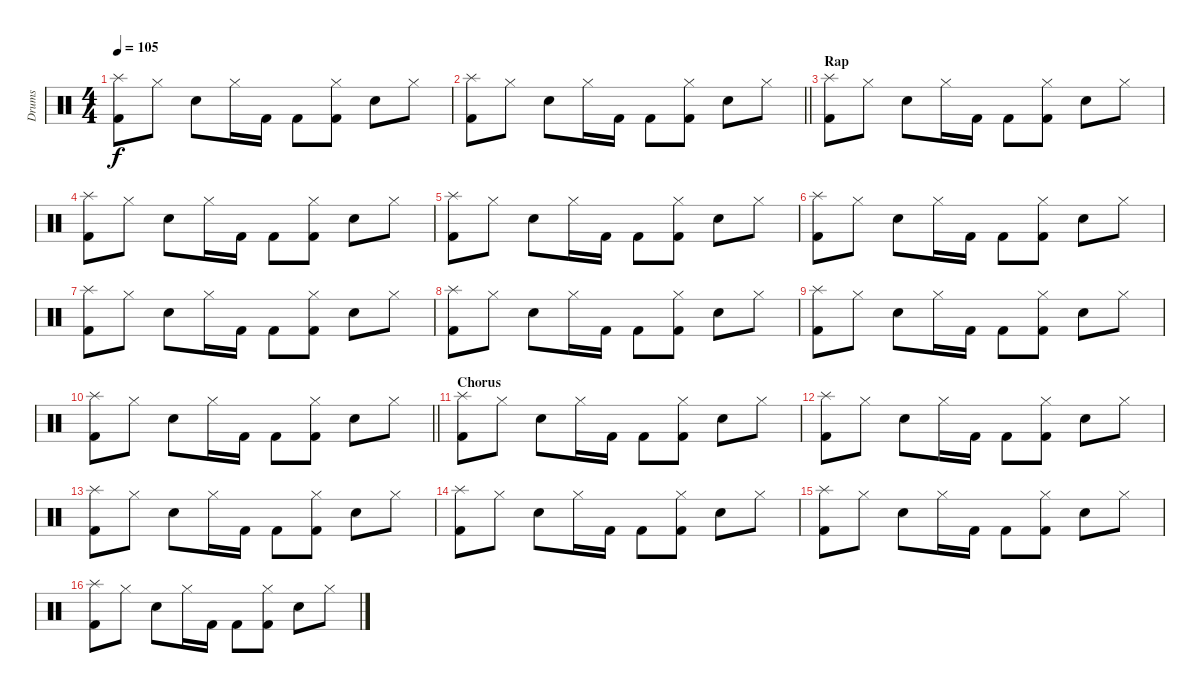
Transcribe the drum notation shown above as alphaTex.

\track ("Drums" "Drums") {instrument percussion}
\staff {score}
\articulation defaults
\ts (4 4)
\tempo 105
\clef neutral
\ks c
("Splash (hit)" "Kick (hit) 2").8{dy f} "Hi-Hat (closed)".8 "Electric Snare (hit)".8 "Hi-Hat (closed)".16 "Kick (hit) 2".16 "Kick (hit) 2".8 ("Hi-Hat (closed)" "Kick (hit) 2").8 "Electric Snare (hit)".8 "Hi-Hat (closed)".8 |
\barLineRight lightlight
("Splash (hit)" "Kick (hit) 2").8 "Hi-Hat (closed)".8 "Electric Snare (hit)".8 "Hi-Hat (closed)".16 "Kick (hit) 2".16 "Kick (hit) 2".8 ("Hi-Hat (closed)" "Kick (hit) 2").8 "Electric Snare (hit)".8 "Hi-Hat (closed)".8 |
\section ("" "Rap")
("Splash (hit)" "Kick (hit) 2").8 "Hi-Hat (closed)".8 "Electric Snare (hit)".8 "Hi-Hat (closed)".16 "Kick (hit) 2".16 "Kick (hit) 2".8 ("Hi-Hat (closed)" "Kick (hit) 2").8 "Electric Snare (hit)".8 "Hi-Hat (closed)".8 |
("Splash (hit)" "Kick (hit) 2").8 "Hi-Hat (closed)".8 "Electric Snare (hit)".8 "Hi-Hat (closed)".16 "Kick (hit) 2".16 "Kick (hit) 2".8 ("Hi-Hat (closed)" "Kick (hit) 2").8 "Electric Snare (hit)".8 "Hi-Hat (closed)".8 |
("Splash (hit)" "Kick (hit) 2").8 "Hi-Hat (closed)".8 "Electric Snare (hit)".8 "Hi-Hat (closed)".16 "Kick (hit) 2".16 "Kick (hit) 2".8 ("Hi-Hat (closed)" "Kick (hit) 2").8 "Electric Snare (hit)".8 "Hi-Hat (closed)".8 |
("Splash (hit)" "Kick (hit) 2").8 "Hi-Hat (closed)".8 "Electric Snare (hit)".8 "Hi-Hat (closed)".16 "Kick (hit) 2".16 "Kick (hit) 2".8 ("Hi-Hat (closed)" "Kick (hit) 2").8 "Electric Snare (hit)".8 "Hi-Hat (closed)".8 |
("Splash (hit)" "Kick (hit) 2").8 "Hi-Hat (closed)".8 "Electric Snare (hit)".8 "Hi-Hat (closed)".16 "Kick (hit) 2".16 "Kick (hit) 2".8 ("Hi-Hat (closed)" "Kick (hit) 2").8 "Electric Snare (hit)".8 "Hi-Hat (closed)".8 |
("Splash (hit)" "Kick (hit) 2").8 "Hi-Hat (closed)".8 "Electric Snare (hit)".8 "Hi-Hat (closed)".16 "Kick (hit) 2".16 "Kick (hit) 2".8 ("Hi-Hat (closed)" "Kick (hit) 2").8 "Electric Snare (hit)".8 "Hi-Hat (closed)".8 |
("Splash (hit)" "Kick (hit) 2").8 "Hi-Hat (closed)".8 "Electric Snare (hit)".8 "Hi-Hat (closed)".16 "Kick (hit) 2".16 "Kick (hit) 2".8 ("Hi-Hat (closed)" "Kick (hit) 2").8 "Electric Snare (hit)".8 "Hi-Hat (closed)".8 |
\barLineRight lightlight
("Splash (hit)" "Kick (hit) 2").8 "Hi-Hat (closed)".8 "Electric Snare (hit)".8 "Hi-Hat (closed)".16 "Kick (hit) 2".16 "Kick (hit) 2".8 ("Hi-Hat (closed)" "Kick (hit) 2").8 "Electric Snare (hit)".8 "Hi-Hat (closed)".8 |
\section ("" "Chorus")
("Splash (hit)" "Kick (hit) 2").8 "Hi-Hat (closed)".8 "Electric Snare (hit)".8 "Hi-Hat (closed)".16 "Kick (hit) 2".16 "Kick (hit) 2".8 ("Hi-Hat (closed)" "Kick (hit) 2").8 "Electric Snare (hit)".8 "Hi-Hat (closed)".8 |
("Splash (hit)" "Kick (hit) 2").8 "Hi-Hat (closed)".8 "Electric Snare (hit)".8 "Hi-Hat (closed)".16 "Kick (hit) 2".16 "Kick (hit) 2".8 ("Hi-Hat (closed)" "Kick (hit) 2").8 "Electric Snare (hit)".8 "Hi-Hat (closed)".8 |
("Splash (hit)" "Kick (hit) 2").8 "Hi-Hat (closed)".8 "Electric Snare (hit)".8 "Hi-Hat (closed)".16 "Kick (hit) 2".16 "Kick (hit) 2".8 ("Hi-Hat (closed)" "Kick (hit) 2").8 "Electric Snare (hit)".8 "Hi-Hat (closed)".8 |
("Splash (hit)" "Kick (hit) 2").8 "Hi-Hat (closed)".8 "Electric Snare (hit)".8 "Hi-Hat (closed)".16 "Kick (hit) 2".16 "Kick (hit) 2".8 ("Hi-Hat (closed)" "Kick (hit) 2").8 "Electric Snare (hit)".8 "Hi-Hat (closed)".8 |
("Splash (hit)" "Kick (hit) 2").8 "Hi-Hat (closed)".8 "Electric Snare (hit)".8 "Hi-Hat (closed)".16 "Kick (hit) 2".16 "Kick (hit) 2".8 ("Hi-Hat (closed)" "Kick (hit) 2").8 "Electric Snare (hit)".8 "Hi-Hat (closed)".8 |
("Splash (hit)" "Kick (hit) 2").8 "Hi-Hat (closed)".8 "Electric Snare (hit)".8 "Hi-Hat (closed)".16 "Kick (hit) 2".16 "Kick (hit) 2".8 ("Hi-Hat (closed)" "Kick (hit) 2").8 "Electric Snare (hit)".8 "Hi-Hat (closed)".8
